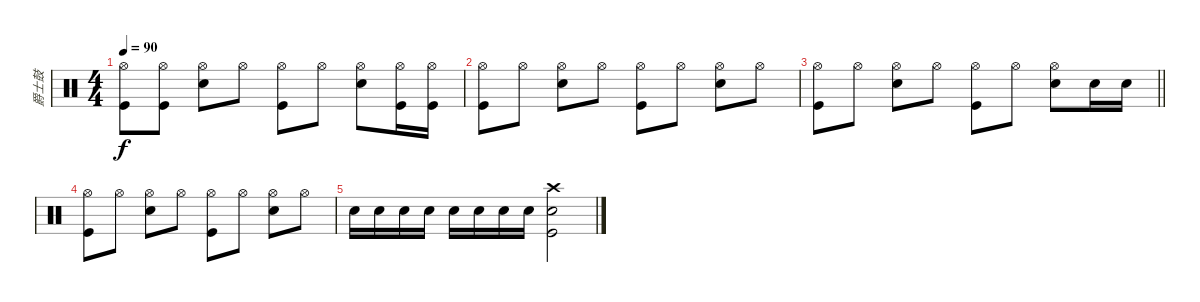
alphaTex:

\track ("爵士鼓" "爵士鼓") {instrument percussion}
\staff {score}
\articulation defaults
\ts (4 4)
\tempo 90
\clef neutral
\ks c
("Hi-Hat (open)" "Kick (hit)").8{dy f} ("Hi-Hat (open)" "Kick (hit)").8 ("Hi-Hat (open)" "Snare (hit) 2").8 "Hi-Hat (open)".8 ("Hi-Hat (open)" "Kick (hit)").8 "Hi-Hat (open)".8 ("Hi-Hat (open)" "Snare (hit) 2").8 ("Hi-Hat (open)" "Kick (hit)").16 ("Hi-Hat (open)" "Kick (hit)").16 |
("Hi-Hat (open)" "Kick (hit)").8 "Hi-Hat (open)".8 ("Hi-Hat (open)" "Snare (hit) 2").8 "Hi-Hat (open)".8 ("Hi-Hat (open)" "Kick (hit)").8 "Hi-Hat (open)".8 ("Hi-Hat (open)" "Snare (hit) 2").8 "Hi-Hat (open)".8 |
\barLineRight lightlight
("Hi-Hat (open)" "Kick (hit)").8 "Hi-Hat (open)".8 ("Hi-Hat (open)" "Snare (hit) 2").8 "Hi-Hat (open)".8 ("Hi-Hat (open)" "Kick (hit)").8 "Hi-Hat (open)".8 ("Hi-Hat (open)" "Snare (hit) 2").8 "Snare (hit) 2".16 "Snare (hit) 2".16 |
("Hi-Hat (open)" "Kick (hit)").8 "Hi-Hat (open)".8 ("Hi-Hat (open)" "Snare (hit) 2").8 "Hi-Hat (open)".8 ("Hi-Hat (open)" "Kick (hit)").8 "Hi-Hat (open)".8 ("Hi-Hat (open)" "Snare (hit) 2").8 "Hi-Hat (open)".8 |
"Snare (hit) 2".16 "Snare (hit) 2".16 "Snare (hit) 2".16 "Snare (hit) 2".16 "Snare (hit) 2".16 "Snare (hit) 2".16 "Snare (hit) 2".16 "Snare (hit) 2".16 ("Crash high (hit)" "Snare (hit) 2" "Kick (hit)").2
